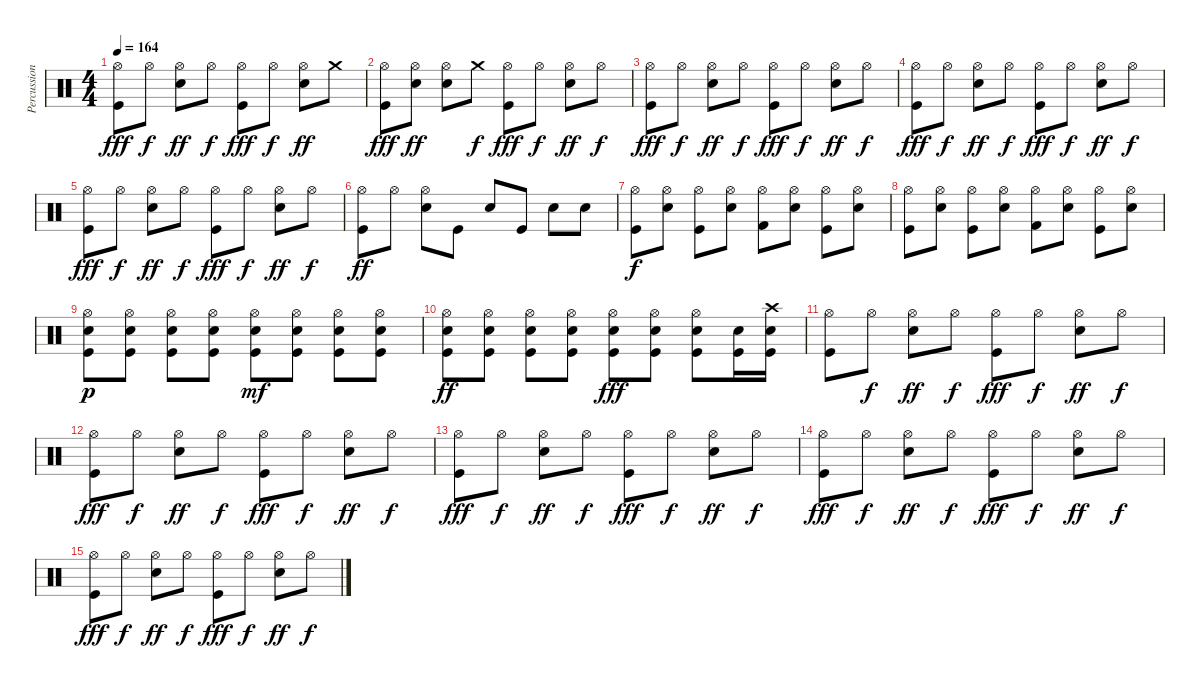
\track ("Percussion" "Percussion") {instrument percussion}
\staff {score}
\articulation defaults
\ts (4 4)
\tempo 164
\clef neutral
\ks c
("Hi-Hat (open)" "Kick (hit)").8{dy fff} "Hi-Hat (open)".8{dy f} ("Hi-Hat (open)" "Snare (hit) 2").8{dy ff} "Hi-Hat (open)".8{dy f} ("Hi-Hat (open)" "Kick (hit)").8{dy fff} "Hi-Hat (open)".8{dy f} ("Hi-Hat (open)" "Snare (hit) 2").8{dy ff} "Crash medium (hit)".8 |
("Hi-Hat (open)" "Kick (hit)").8{dy fff} ("Hi-Hat (open)" "Snare (hit) 2").8{dy ff} ("Hi-Hat (open)" "Snare (hit) 2").8 "Crash medium (hit)".8{dy f} ("Hi-Hat (open)" "Kick (hit)").8{dy fff} "Hi-Hat (open)".8{dy f} ("Hi-Hat (open)" "Snare (hit) 2").8{dy ff} "Hi-Hat (open)".8{dy f} |
("Hi-Hat (open)" "Kick (hit)").8{dy fff} "Hi-Hat (open)".8{dy f} ("Hi-Hat (open)" "Snare (hit) 2").8{dy ff} "Hi-Hat (open)".8{dy f} ("Hi-Hat (open)" "Kick (hit)").8{dy fff} "Hi-Hat (open)".8{dy f} ("Hi-Hat (open)" "Snare (hit) 2").8{dy ff} "Hi-Hat (open)".8{dy f} |
("Hi-Hat (open)" "Kick (hit)").8{dy fff} "Hi-Hat (open)".8{dy f} ("Hi-Hat (open)" "Snare (hit) 2").8{dy ff} "Hi-Hat (open)".8{dy f} ("Hi-Hat (open)" "Kick (hit)").8{dy fff} "Hi-Hat (open)".8{dy f} ("Hi-Hat (open)" "Snare (hit) 2").8{dy ff} "Hi-Hat (open)".8{dy f} |
("Hi-Hat (open)" "Kick (hit)").8{dy fff} "Hi-Hat (open)".8{dy f} ("Hi-Hat (open)" "Snare (hit) 2").8{dy ff} "Hi-Hat (open)".8{dy f} ("Hi-Hat (open)" "Kick (hit)").8{dy fff} "Hi-Hat (open)".8{dy f} ("Hi-Hat (open)" "Snare (hit) 2").8{dy ff} "Hi-Hat (open)".8{dy f} |
("Hi-Hat (open)" "Kick (hit)").8{dy ff} "Hi-Hat (open)".8 ("Hi-Hat (open)" "Snare (hit) 2").8 "Kick (hit)".8 "Snare (hit) 2".8 "Kick (hit)".8 "Snare (hit) 2".8 "Snare (hit) 2".8 |
("Hi-Hat (open)" "Kick (hit)").8{dy f} ("Hi-Hat (open)" "Snare (hit) 2").8 ("Hi-Hat (open)" "Kick (hit)").8 ("Hi-Hat (open)" "Snare (hit) 2").8 ("Hi-Hat (open)" "Kick (hit) 2").8 ("Hi-Hat (open)" "Snare (hit) 2").8 ("Hi-Hat (open)" "Kick (hit)").8 ("Hi-Hat (open)" "Snare (hit) 2").8 |
("Hi-Hat (open)" "Kick (hit)").8 ("Hi-Hat (open)" "Snare (hit) 2").8 ("Hi-Hat (open)" "Kick (hit)").8 ("Hi-Hat (open)" "Snare (hit) 2").8 ("Hi-Hat (open)" "Kick (hit) 2").8 ("Hi-Hat (open)" "Snare (hit) 2").8 ("Hi-Hat (open)" "Kick (hit)").8 ("Hi-Hat (open)" "Snare (hit) 2").8 |
("Hi-Hat (open)" "Snare (hit) 2" "Kick (hit)").8{dy p} ("Hi-Hat (open)" "Snare (hit) 2" "Kick (hit)").8 ("Hi-Hat (open)" "Snare (hit) 2" "Kick (hit)").8 ("Hi-Hat (open)" "Snare (hit) 2" "Kick (hit)").8 ("Hi-Hat (open)" "Snare (hit) 2" "Kick (hit)").8{dy mf} ("Hi-Hat (open)" "Snare (hit) 2" "Kick (hit)").8 ("Hi-Hat (open)" "Snare (hit) 2" "Kick (hit)").8 ("Hi-Hat (open)" "Snare (hit) 2" "Kick (hit)").8 |
("Hi-Hat (open)" "Snare (hit) 2" "Kick (hit)").8{dy ff} ("Hi-Hat (open)" "Snare (hit) 2" "Kick (hit)").8 ("Hi-Hat (open)" "Snare (hit) 2" "Kick (hit)").8 ("Hi-Hat (open)" "Snare (hit) 2" "Kick (hit)").8 ("Hi-Hat (open)" "Snare (hit) 2" "Kick (hit)").8{dy fff} ("Hi-Hat (open)" "Snare (hit) 2" "Kick (hit)").8 ("Hi-Hat (open)" "Snare (hit) 2" "Kick (hit)").8 ("Snare (hit) 2" "Kick (hit)").16 ("Crash high (hit)" "Snare (hit) 2" "Kick (hit)").16 |
("Hi-Hat (open)" "Kick (hit)").8 "Hi-Hat (open)".8{dy f} ("Hi-Hat (open)" "Snare (hit) 2").8{dy ff} "Hi-Hat (open)".8{dy f} ("Hi-Hat (open)" "Kick (hit)").8{dy fff} "Hi-Hat (open)".8{dy f} ("Hi-Hat (open)" "Snare (hit) 2").8{dy ff} "Hi-Hat (open)".8{dy f} |
("Hi-Hat (open)" "Kick (hit)").8{dy fff} "Hi-Hat (open)".8{dy f} ("Hi-Hat (open)" "Snare (hit) 2").8{dy ff} "Hi-Hat (open)".8{dy f} ("Hi-Hat (open)" "Kick (hit)").8{dy fff} "Hi-Hat (open)".8{dy f} ("Hi-Hat (open)" "Snare (hit) 2").8{dy ff} "Hi-Hat (open)".8{dy f} |
("Hi-Hat (open)" "Kick (hit)").8{dy fff} "Hi-Hat (open)".8{dy f} ("Hi-Hat (open)" "Snare (hit) 2").8{dy ff} "Hi-Hat (open)".8{dy f} ("Hi-Hat (open)" "Kick (hit)").8{dy fff} "Hi-Hat (open)".8{dy f} ("Hi-Hat (open)" "Snare (hit) 2").8{dy ff} "Hi-Hat (open)".8{dy f} |
("Hi-Hat (open)" "Kick (hit)").8{dy fff} "Hi-Hat (open)".8{dy f} ("Hi-Hat (open)" "Snare (hit) 2").8{dy ff} "Hi-Hat (open)".8{dy f} ("Hi-Hat (open)" "Kick (hit)").8{dy fff} "Hi-Hat (open)".8{dy f} ("Hi-Hat (open)" "Snare (hit) 2").8{dy ff} "Hi-Hat (open)".8{dy f} |
("Hi-Hat (open)" "Kick (hit)").8{dy fff} "Hi-Hat (open)".8{dy f} ("Hi-Hat (open)" "Snare (hit) 2").8{dy ff} "Hi-Hat (open)".8{dy f} ("Hi-Hat (open)" "Kick (hit)").8{dy fff} "Hi-Hat (open)".8{dy f} ("Hi-Hat (open)" "Snare (hit) 2").8{dy ff} "Hi-Hat (open)".8{dy f}
